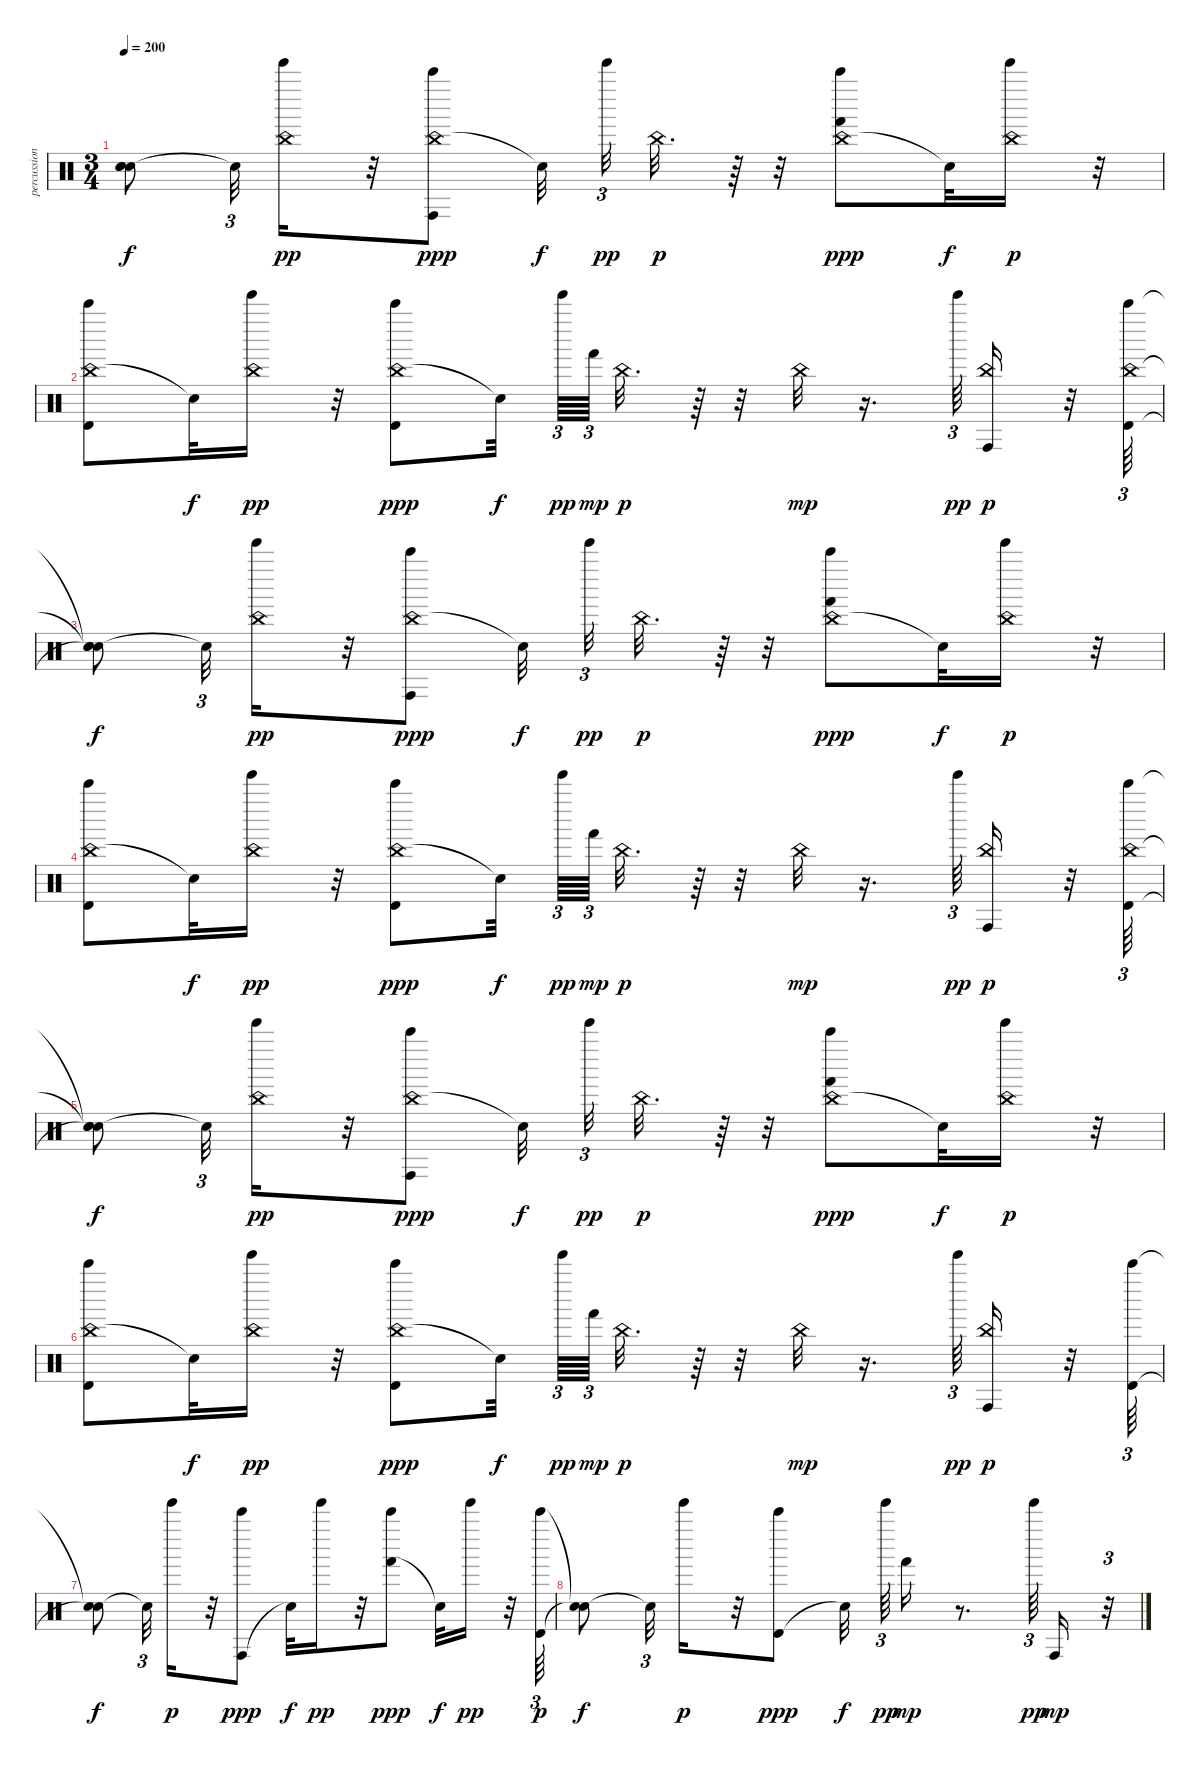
\track ("percussion" "percussion") {instrument percussion}
\staff {score}
\articulation defaults
\ts (3 4)
\tempo 200
\clef neutral
\ks c
("Snare (hit)"{t} "Snare (hit)"{t} "Snare (hit)"{t}).8{dy f} "Snare (hit)"{t}.32{tu (3 2)} ("Tinkle Bell (hit)" "China (hit)").16{dy pp} r.32 ("China (hit)" "Conga high (hit)" "Bell Tree (hit)").8{dy ppp} "Snare (hit)"{t}.32{dy f} "Tinkle Bell (hit)".32{tu (3 2) dy pp} "China (hit)".32{d dy p} r.64 r.32 ("China (hit)" "Hand (hit)" "Bell Tree (hit)").8{dy ppp} "Snare (hit)"{t}.32{dy f} ("Tinkle Bell (hit)" "China (hit)").16{dy p} r.32 |
("China (hit)" "Timbale high (hit)" "Bell Tree (hit)").8 "Snare (hit)"{t}.32{dy f} ("Tinkle Bell (hit)" "China (hit)").16{dy pp} r.32 ("China (hit)" "Timbale high (hit)" "Bell Tree (hit)").8{dy ppp} "Snare (hit)"{t}.32{dy f} "Tinkle Bell (hit)".64{tu (3 2) dy pp} "Hand (hit)".64{tu (3 2) dy mp} "China (hit)".32{d dy p} r.64 r.32 "China (hit)".32{dy mp} r.16{d} "Tinkle Bell (hit)".64{tu (3 2) dy pp} ("Conga high (hit)" "China (hit)").16{dy p} r.32 ("China (hit)" "Timbale high (hit)" "Bell Tree (hit)").64{tu (3 2)} |
("Snare (hit)"{t} "Snare (hit)"{t} "Snare (hit)"{t}).8{dy f} "Snare (hit)"{t}.32{tu (3 2)} ("Tinkle Bell (hit)" "China (hit)").16{dy pp} r.32 ("China (hit)" "Conga high (hit)" "Bell Tree (hit)").8{dy ppp} "Snare (hit)"{t}.32{dy f} "Tinkle Bell (hit)".32{tu (3 2) dy pp} "China (hit)".32{d dy p} r.64 r.32 ("China (hit)" "Hand (hit)" "Bell Tree (hit)").8{dy ppp} "Snare (hit)"{t}.32{dy f} ("Tinkle Bell (hit)" "China (hit)").16{dy p} r.32 |
("China (hit)" "Timbale high (hit)" "Bell Tree (hit)").8 "Snare (hit)"{t}.32{dy f} ("Tinkle Bell (hit)" "China (hit)").16{dy pp} r.32 ("China (hit)" "Timbale high (hit)" "Bell Tree (hit)").8{dy ppp} "Snare (hit)"{t}.32{dy f} "Tinkle Bell (hit)".64{tu (3 2) dy pp} "Hand (hit)".64{tu (3 2) dy mp} "China (hit)".32{d dy p} r.64 r.32 "China (hit)".32{dy mp} r.16{d} "Tinkle Bell (hit)".64{tu (3 2) dy pp} ("Conga high (hit)" "China (hit)").16{dy p} r.32 ("China (hit)" "Timbale high (hit)" "Bell Tree (hit)").64{tu (3 2)} |
("Snare (hit)"{t} "Snare (hit)"{t} "Snare (hit)"{t}).8{dy f} "Snare (hit)"{t}.32{tu (3 2)} ("Tinkle Bell (hit)" "China (hit)").16{dy pp} r.32 ("China (hit)" "Conga high (hit)" "Bell Tree (hit)").8{dy ppp} "Snare (hit)"{t}.32{dy f} "Tinkle Bell (hit)".32{tu (3 2) dy pp} "China (hit)".32{d dy p} r.64 r.32 ("China (hit)" "Hand (hit)" "Bell Tree (hit)").8{dy ppp} "Snare (hit)"{t}.32{dy f} ("Tinkle Bell (hit)" "China (hit)").16{dy p} r.32 |
("China (hit)" "Timbale high (hit)" "Bell Tree (hit)").8 "Snare (hit)"{t}.32{dy f} ("Tinkle Bell (hit)" "China (hit)").16{dy pp} r.32 ("China (hit)" "Timbale high (hit)" "Bell Tree (hit)").8{dy ppp} "Snare (hit)"{t}.32{dy f} "Tinkle Bell (hit)".64{tu (3 2) dy pp} "Hand (hit)".64{tu (3 2) dy mp} "China (hit)".32{d dy p} r.64 r.32 "China (hit)".32{dy mp} r.16{d} "Tinkle Bell (hit)".64{tu (3 2) dy pp} ("Conga high (hit)" "China (hit)").16{dy p} r.32 ("Timbale high (hit)" "Bell Tree (hit)").64{tu (3 2)} |
("Snare (hit)"{t} "Snare (hit)"{t}).8{dy f} "Snare (hit)"{t}.32{tu (3 2)} "Tinkle Bell (hit)".16{dy p} r.32 ("Conga high (hit)" "Bell Tree (hit)").8{dy ppp} "Snare (hit)"{t}.32{dy f} "Tinkle Bell (hit)".16{dy pp} r.32 ("Hand (hit)" "Bell Tree (hit)").8{dy ppp} "Snare (hit)"{t}.32{dy f} "Tinkle Bell (hit)".16{dy pp} r.32 ("Timbale high (hit)" "Bell Tree (hit)").64{tu (3 2) dy p} |
("Snare (hit)"{t} "Snare (hit)"{t}).8{dy f} "Snare (hit)"{t}.32{tu (3 2)} "Tinkle Bell (hit)".16{dy p} r.32 ("Timbale high (hit)" "Bell Tree (hit)").8{dy ppp} "Snare (hit)"{t}.32{dy f} "Tinkle Bell (hit)".64{tu (3 2) dy pp} "Hand (hit)".16{dy mp} r.8{d} "Tinkle Bell (hit)".64{tu (3 2) dy pp} "Conga high (hit)".16{dy mp} r.32{tu (3 2)}
